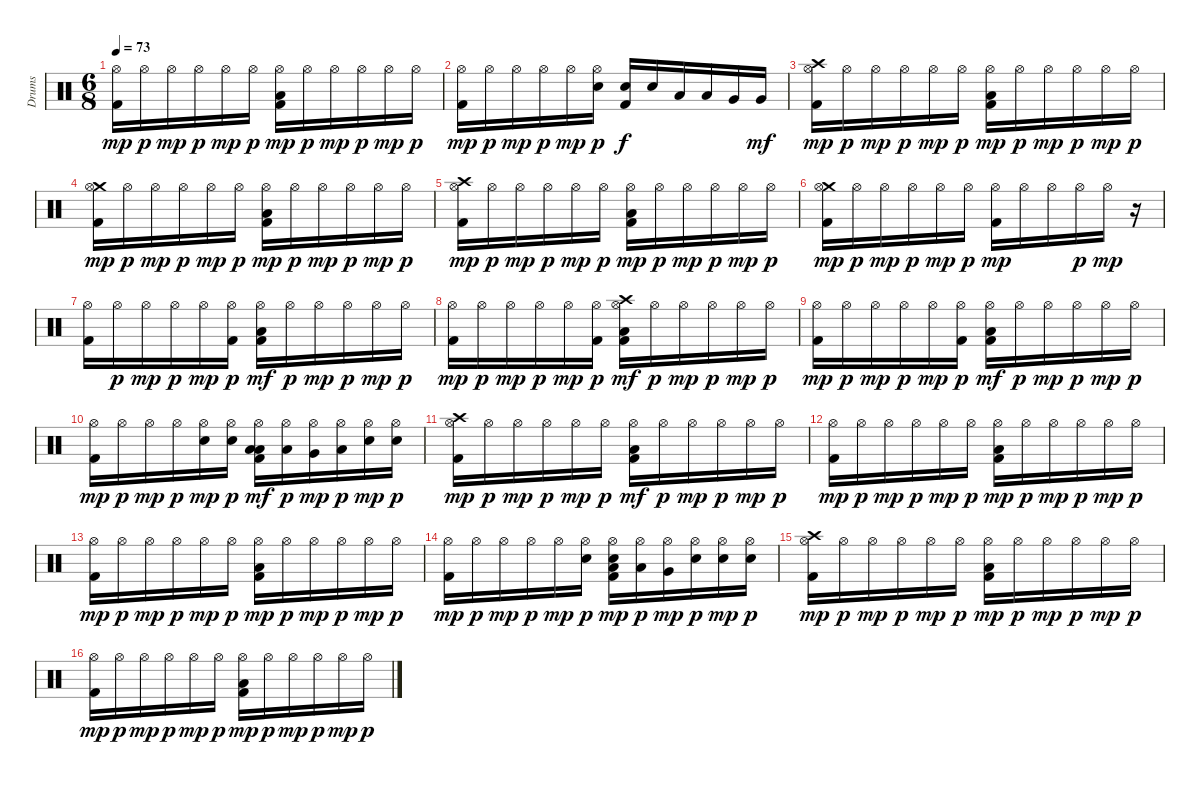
\track ("Drums" "Drums") {instrument percussion}
\staff {score}
\articulation defaults
\ts (6 8)
\tempo 73
\clef neutral
\ks c
("Kick (hit) 2" "Hi-Hat (open)").16{dy mp} "Hi-Hat (open)".16{dy p} "Hi-Hat (open)".16{dy mp} "Hi-Hat (open)".16{dy p} "Hi-Hat (open)".16{dy mp} "Hi-Hat (open)".16{dy p} ("Kick (hit) 2" "Low Floor Tom (hit)" "Hi-Hat (open)").16{dy mp} "Hi-Hat (open)".16{dy p} "Hi-Hat (open)".16{dy mp} "Hi-Hat (open)".16{dy p} "Hi-Hat (open)".16{dy mp} "Hi-Hat (open)".16{dy p} |
("Kick (hit) 2" "Hi-Hat (open)").16{dy mp} "Hi-Hat (open)".16{dy p} "Hi-Hat (open)".16{dy mp} "Hi-Hat (open)".16{dy p} "Hi-Hat (open)".16{dy mp} ("Snare (hit) 2" "Hi-Hat (open)").16{dy p} ("Kick (hit) 2" "Snare (hit) 2").16{dy f} "Snare (hit) 2".16 "Low Tom (hit)".16 "Low Tom (hit)".16 "Very Low Tom (hit)".16 "Very Low Tom (hit)".16{dy mf} |
("Crash high (hit)" "Kick (hit) 2" "Hi-Hat (open)").16{dy mp} "Hi-Hat (open)".16{dy p} "Hi-Hat (open)".16{dy mp} "Hi-Hat (open)".16{dy p} "Hi-Hat (open)".16{dy mp} "Hi-Hat (open)".16{dy p} ("Low Floor Tom (hit)" "Kick (hit) 2" "Hi-Hat (open)").16{dy mp} "Hi-Hat (open)".16{dy p} "Hi-Hat (open)".16{dy mp} "Hi-Hat (open)".16{dy p} "Hi-Hat (open)".16{dy mp} "Hi-Hat (open)".16{dy p} |
("Crash medium (hit)" "Kick (hit) 2" "Hi-Hat (open)").16{dy mp} "Hi-Hat (open)".16{dy p} "Hi-Hat (open)".16{dy mp} "Hi-Hat (open)".16{dy p} "Hi-Hat (open)".16{dy mp} "Hi-Hat (open)".16{dy p} ("Kick (hit) 2" "Low Floor Tom (hit)" "Hi-Hat (open)").16{dy mp} "Hi-Hat (open)".16{dy p} "Hi-Hat (open)".16{dy mp} "Hi-Hat (open)".16{dy p} "Hi-Hat (open)".16{dy mp} "Hi-Hat (open)".16{dy p} |
("Crash high (hit)" "Kick (hit) 2" "Hi-Hat (open)").16{dy mp} "Hi-Hat (open)".16{dy p} "Hi-Hat (open)".16{dy mp} "Hi-Hat (open)".16{dy p} "Hi-Hat (open)".16{dy mp} "Hi-Hat (open)".16{dy p} ("Kick (hit) 2" "Low Floor Tom (hit)" "Hi-Hat (open)").16{dy mp} "Hi-Hat (open)".16{dy p} "Hi-Hat (open)".16{dy mp} "Hi-Hat (open)".16{dy p} "Hi-Hat (open)".16{dy mp} "Hi-Hat (open)".16{dy p} |
("Kick (hit) 2" "Crash medium (hit)" "Hi-Hat (open)").16{dy mp} "Hi-Hat (open)".16{dy p} "Hi-Hat (open)".16{dy mp} "Hi-Hat (open)".16{dy p} "Hi-Hat (open)".16{dy mp} "Hi-Hat (open)".16{dy p} ("Kick (hit) 2" "Hi-Hat (open)").16{dy mp} "Hi-Hat (open)".16 "Hi-Hat (open)".16 "Hi-Hat (open)".16{dy p} "Hi-Hat (open)".16{dy mp} r.16 |
("Hi-Hat (open)" "Kick (hit) 2").16 "Hi-Hat (open)".16{dy p} "Hi-Hat (open)".16{dy mp} "Hi-Hat (open)".16{dy p} "Hi-Hat (open)".16{dy mp} ("Kick (hit) 2" "Hi-Hat (open)").16{dy p} ("Hi-Hat (open)" "Low Floor Tom (hit)" "Kick (hit) 2").16{dy mf} "Hi-Hat (open)".16{dy p} "Hi-Hat (open)".16{dy mp} "Hi-Hat (open)".16{dy p} "Hi-Hat (open)".16{dy mp} "Hi-Hat (open)".16{dy p} |
("Hi-Hat (open)" "Kick (hit) 2").16{dy mp} "Hi-Hat (open)".16{dy p} "Hi-Hat (open)".16{dy mp} "Hi-Hat (open)".16{dy p} "Hi-Hat (open)".16{dy mp} ("Kick (hit) 2" "Hi-Hat (open)").16{dy p} ("Hi-Hat (open)" "Crash high (hit)" "Low Floor Tom (hit)" "Kick (hit) 2").16{dy mf} "Hi-Hat (open)".16{dy p} "Hi-Hat (open)".16{dy mp} "Hi-Hat (open)".16{dy p} "Hi-Hat (open)".16{dy mp} "Hi-Hat (open)".16{dy p} |
("Hi-Hat (open)" "Kick (hit) 2").16{dy mp} "Hi-Hat (open)".16{dy p} "Hi-Hat (open)".16{dy mp} "Hi-Hat (open)".16{dy p} "Hi-Hat (open)".16{dy mp} ("Kick (hit) 2" "Hi-Hat (open)").16{dy p} ("Hi-Hat (open)" "Low Floor Tom (hit)" "Kick (hit) 2").16{dy mf} "Hi-Hat (open)".16{dy p} "Hi-Hat (open)".16{dy mp} "Hi-Hat (open)".16{dy p} "Hi-Hat (open)".16{dy mp} "Hi-Hat (open)".16{dy p} |
("Hi-Hat (open)" "Kick (hit) 2").16{dy mp} "Hi-Hat (open)".16{dy p} "Hi-Hat (open)".16{dy mp} "Hi-Hat (open)".16{dy p} ("Snare (hit) 2" "Hi-Hat (open)").16{dy mp} ("Snare (hit) 2" "Hi-Hat (open)").16{dy p} ("Low Tom (hit)" "Hi-Hat (open)" "Low Floor Tom (hit)" "Kick (hit) 2").16{dy mf} ("Low Tom (hit)" "Hi-Hat (open)").16{dy p} ("Very Low Tom (hit)" "Hi-Hat (open)").16{dy mp} ("Low Floor Tom (hit)" "Hi-Hat (open)").16{dy p} ("Snare (hit) 2" "Hi-Hat (open)").16{dy mp} ("Snare (hit) 2" "Hi-Hat (open)").16{dy p} |
("Hi-Hat (open)" "Crash high (hit)" "Kick (hit) 2").16{dy mp} "Hi-Hat (open)".16{dy p} "Hi-Hat (open)".16{dy mp} "Hi-Hat (open)".16{dy p} "Hi-Hat (open)".16{dy mp} "Hi-Hat (open)".16{dy p} ("Hi-Hat (open)" "Low Floor Tom (hit)" "Kick (hit) 2").16{dy mf} "Hi-Hat (open)".16{dy p} "Hi-Hat (open)".16{dy mp} "Hi-Hat (open)".16{dy p} "Hi-Hat (open)".16{dy mp} "Hi-Hat (open)".16{dy p} |
("Hi-Hat (open)" "Kick (hit) 2").16{dy mp} "Hi-Hat (open)".16{dy p} "Hi-Hat (open)".16{dy mp} "Hi-Hat (open)".16{dy p} "Hi-Hat (open)".16{dy mp} "Hi-Hat (open)".16{dy p} ("Kick (hit) 2" "Low Floor Tom (hit)" "Hi-Hat (open)").16{dy mp} "Hi-Hat (open)".16{dy p} "Hi-Hat (open)".16{dy mp} "Hi-Hat (open)".16{dy p} "Hi-Hat (open)".16{dy mp} "Hi-Hat (open)".16{dy p} |
("Kick (hit) 2" "Hi-Hat (open)").16{dy mp} "Hi-Hat (open)".16{dy p} "Hi-Hat (open)".16{dy mp} "Hi-Hat (open)".16{dy p} "Hi-Hat (open)".16{dy mp} "Hi-Hat (open)".16{dy p} ("Kick (hit) 2" "Low Floor Tom (hit)" "Hi-Hat (open)").16{dy mp} "Hi-Hat (open)".16{dy p} "Hi-Hat (open)".16{dy mp} "Hi-Hat (open)".16{dy p} "Hi-Hat (open)".16{dy mp} "Hi-Hat (open)".16{dy p} |
("Kick (hit) 2" "Hi-Hat (open)").16{dy mp} "Hi-Hat (open)".16{dy p} "Hi-Hat (open)".16{dy mp} "Hi-Hat (open)".16{dy p} "Hi-Hat (open)".16{dy mp} ("Snare (hit) 2" "Hi-Hat (open)").16{dy p} ("Snare (hit) 2" "Low Floor Tom (hit)" "Kick (hit) 2" "Hi-Hat (open)").16{dy mp} ("Low Tom (hit)" "Hi-Hat (open)").16{dy p} ("Very Low Tom (hit)" "Hi-Hat (open)").16{dy mp} ("Snare (hit) 2" "Hi-Hat (open)").16{dy p} ("Snare (hit) 2" "Hi-Hat (open)").16{dy mp} ("Snare (hit) 2" "Hi-Hat (open)").16{dy p} |
("Crash high (hit)" "Kick (hit) 2" "Hi-Hat (open)").16{dy mp} "Hi-Hat (open)".16{dy p} "Hi-Hat (open)".16{dy mp} "Hi-Hat (open)".16{dy p} "Hi-Hat (open)".16{dy mp} "Hi-Hat (open)".16{dy p} ("Low Floor Tom (hit)" "Kick (hit) 2" "Hi-Hat (open)").16{dy mp} "Hi-Hat (open)".16{dy p} "Hi-Hat (open)".16{dy mp} "Hi-Hat (open)".16{dy p} "Hi-Hat (open)".16{dy mp} "Hi-Hat (open)".16{dy p} |
("Kick (hit) 2" "Hi-Hat (open)").16{dy mp} "Hi-Hat (open)".16{dy p} "Hi-Hat (open)".16{dy mp} "Hi-Hat (open)".16{dy p} "Hi-Hat (open)".16{dy mp} "Hi-Hat (open)".16{dy p} ("Kick (hit) 2" "Low Floor Tom (hit)" "Hi-Hat (open)").16{dy mp} "Hi-Hat (open)".16{dy p} "Hi-Hat (open)".16{dy mp} "Hi-Hat (open)".16{dy p} "Hi-Hat (open)".16{dy mp} "Hi-Hat (open)".16{dy p}
